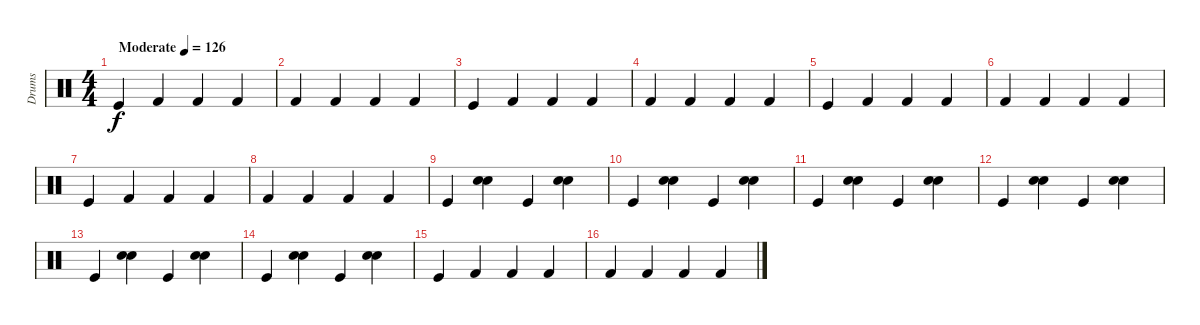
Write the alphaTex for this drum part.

\track ("Drums" "Drums") {instrument percussion}
\staff {score}
\articulation defaults
\ts (4 4)
\tempo (126 "Moderate")
\clef neutral
\ks c "Kick (hit)".4{dy f} "Kick (hit) 2".4 "Kick (hit) 2".4 "Kick (hit) 2".4
|
"Kick (hit) 2".4 "Kick (hit) 2".4 "Kick (hit) 2".4 "Kick (hit) 2".4 |
"Kick (hit)".4 "Kick (hit) 2".4 "Kick (hit) 2".4 "Kick (hit) 2".4 |
"Kick (hit) 2".4 "Kick (hit) 2".4 "Kick (hit) 2".4 "Kick (hit) 2".4 |
"Kick (hit)".4 "Kick (hit) 2".4 "Kick (hit) 2".4 "Kick (hit) 2".4 |
"Kick (hit) 2".4 "Kick (hit) 2".4 "Kick (hit) 2".4 "Kick (hit) 2".4 |
"Kick (hit)".4 "Kick (hit) 2".4 "Kick (hit) 2".4 "Kick (hit) 2".4 |
"Kick (hit) 2".4 "Kick (hit) 2".4 "Kick (hit) 2".4 "Kick (hit) 2".4 |
"Kick (hit)".4 ("Snare (hit) 2" "Hand Clap (hit)").4 "Kick (hit)".4 ("Snare (hit) 2" "Hand Clap (hit)").4 |
"Kick (hit)".4 ("Snare (hit) 2" "Hand Clap (hit)").4 "Kick (hit)".4 ("Snare (hit) 2" "Hand Clap (hit)").4 |
"Kick (hit)".4 ("Snare (hit) 2" "Hand Clap (hit)").4 "Kick (hit)".4 ("Snare (hit) 2" "Hand Clap (hit)").4 |
"Kick (hit)".4 ("Snare (hit) 2" "Hand Clap (hit)").4 "Kick (hit)".4 ("Snare (hit) 2" "Hand Clap (hit)").4 |
"Kick (hit)".4 ("Snare (hit) 2" "Hand Clap (hit)").4 "Kick (hit)".4 ("Snare (hit) 2" "Hand Clap (hit)").4 |
"Kick (hit)".4 ("Snare (hit) 2" "Hand Clap (hit)").4 "Kick (hit)".4 ("Snare (hit) 2" "Hand Clap (hit)").4 |
"Kick (hit)".4 "Kick (hit) 2".4 "Kick (hit) 2".4 "Kick (hit) 2".4 |
"Kick (hit) 2".4 "Kick (hit) 2".4 "Kick (hit) 2".4 "Kick (hit) 2".4
